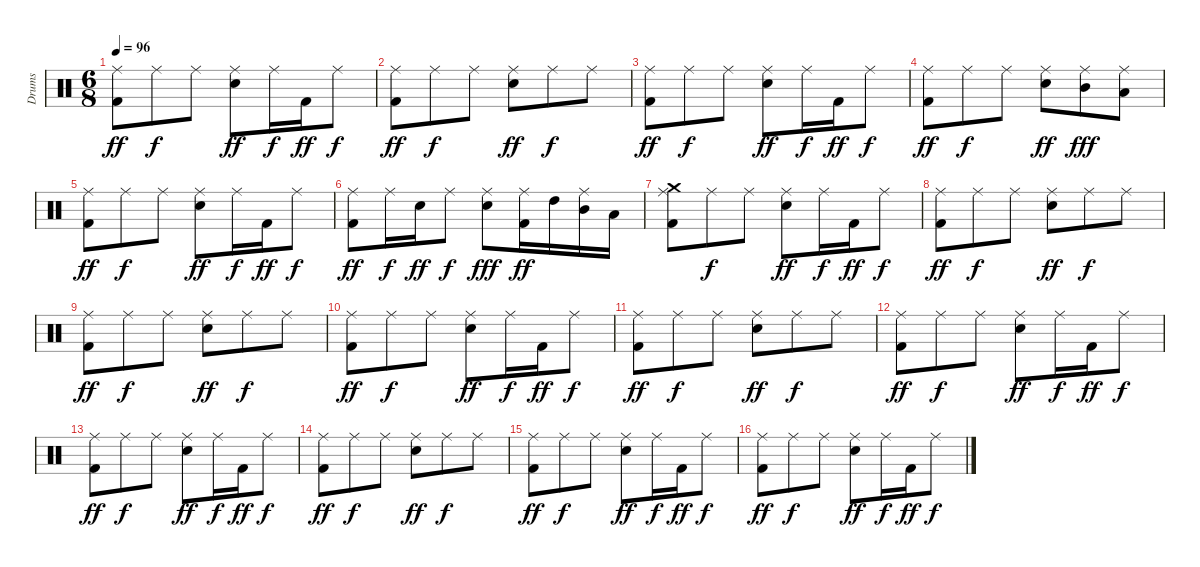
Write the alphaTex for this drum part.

\track ("Drums" "Drums") {instrument percussion}
\staff {score}
\articulation defaults
\ts (6 8)
\tempo 96
\clef neutral
\ks c
("Ride (middle)" "Kick (hit) 2").8{dy ff} "Ride (middle)".8{dy f} "Ride (middle)".8 ("Ride (middle)" "Electric Snare (hit)").8{dy ff} "Ride (middle)".16{dy f} "Kick (hit) 2".16{dy ff} "Ride (middle)".8{dy f} |
("Ride (middle)" "Kick (hit) 2").8{dy ff} "Ride (middle)".8{dy f} "Ride (middle)".8 ("Ride (middle)" "Electric Snare (hit)").8{dy ff} "Ride (middle)".8{dy f} "Ride (middle)".8 |
("Kick (hit) 2" "Ride (middle)").8{dy ff} "Ride (middle)".8{dy f} "Ride (middle)".8 ("Electric Snare (hit)" "Ride (middle)").8{dy ff} "Ride (middle)".16{dy f} "Kick (hit) 2".16{dy ff} "Ride (middle)".8{dy f} |
("Ride (middle)" "Kick (hit) 2").8{dy ff} "Ride (middle)".8{dy f} "Ride (middle)".8 ("Ride (middle)" "Electric Snare (hit)").8{dy ff} ("Mid Tom (hit)" "Ride (middle)").8{dy fff} ("Low Tom (hit)" "Ride (middle)").8 |
("Ride (middle)" "Kick (hit) 2").8{dy ff} "Ride (middle)".8{dy f} "Ride (middle)".8 ("Ride (middle)" "Electric Snare (hit)").8{dy ff} "Ride (middle)".16{dy f} "Kick (hit) 2".16{dy ff} "Ride (middle)".8{dy f} |
("Ride (middle)" "Kick (hit) 2").8{dy ff} "Ride (middle)".16{dy f} "Electric Snare (hit)".16{dy ff} "Ride (middle)".8{dy f} ("Ride (middle)" "Electric Snare (hit)").8{dy fff} ("Kick (hit) 2" "Ride (middle)").16{dy ff} "High Tom (hit)".16 ("Mid Tom (hit)" "Ride (middle)").16 "Low Tom (hit)".16 |
("Crash medium (hit)" "Ride (middle)" "Kick (hit) 2").8 "Ride (middle)".8{dy f} "Ride (middle)".8 ("Ride (middle)" "Electric Snare (hit)").8{dy ff} "Ride (middle)".16{dy f} "Kick (hit) 2".16{dy ff} "Ride (middle)".8{dy f} |
("Ride (middle)" "Kick (hit) 2").8{dy ff} "Ride (middle)".8{dy f} "Ride (middle)".8 ("Ride (middle)" "Electric Snare (hit)").8{dy ff} "Ride (middle)".8{dy f} "Ride (middle)".8 |
("Kick (hit) 2" "Ride (middle)").8{dy ff} "Ride (middle)".8{dy f} "Ride (middle)".8 ("Electric Snare (hit)" "Ride (middle)").8{dy ff} "Ride (middle)".8{dy f} "Ride (middle)".8 |
("Kick (hit) 2" "Ride (middle)").8{dy ff} "Ride (middle)".8{dy f} "Ride (middle)".8 ("Electric Snare (hit)" "Ride (middle)").8{dy ff} "Ride (middle)".16{dy f} "Kick (hit) 2".16{dy ff} "Ride (middle)".8{dy f} |
("Kick (hit) 2" "Ride (middle)").8{dy ff} "Ride (middle)".8{dy f} "Ride (middle)".8 ("Electric Snare (hit)" "Ride (middle)").8{dy ff} "Ride (middle)".8{dy f} "Ride (middle)".8 |
("Ride (middle)" "Kick (hit) 2").8{dy ff} "Ride (middle)".8{dy f} "Ride (middle)".8 ("Ride (middle)" "Electric Snare (hit)").8{dy ff} "Ride (middle)".16{dy f} "Kick (hit) 2".16{dy ff} "Ride (middle)".8{dy f} |
("Kick (hit) 2" "Ride (middle)").8{dy ff} "Ride (middle)".8{dy f} "Ride (middle)".8 ("Electric Snare (hit)" "Ride (middle)").8{dy ff} "Ride (middle)".16{dy f} "Kick (hit) 2".16{dy ff} "Ride (middle)".8{dy f} |
("Kick (hit) 2" "Ride (middle)").8{dy ff} "Ride (middle)".8{dy f} "Ride (middle)".8 ("Electric Snare (hit)" "Ride (middle)").8{dy ff} "Ride (middle)".8{dy f} "Ride (middle)".8 |
("Ride (middle)" "Kick (hit) 2").8{dy ff} "Ride (middle)".8{dy f} "Ride (middle)".8 ("Ride (middle)" "Electric Snare (hit)").8{dy ff} "Ride (middle)".16{dy f} "Kick (hit) 2".16{dy ff} "Ride (middle)".8{dy f} |
("Ride (middle)" "Kick (hit) 2").8{dy ff} "Ride (middle)".8{dy f} "Ride (middle)".8 ("Ride (middle)" "Electric Snare (hit)").8{dy ff} "Ride (middle)".16{dy f} "Kick (hit) 2".16{dy ff} "Ride (middle)".8{dy f}
